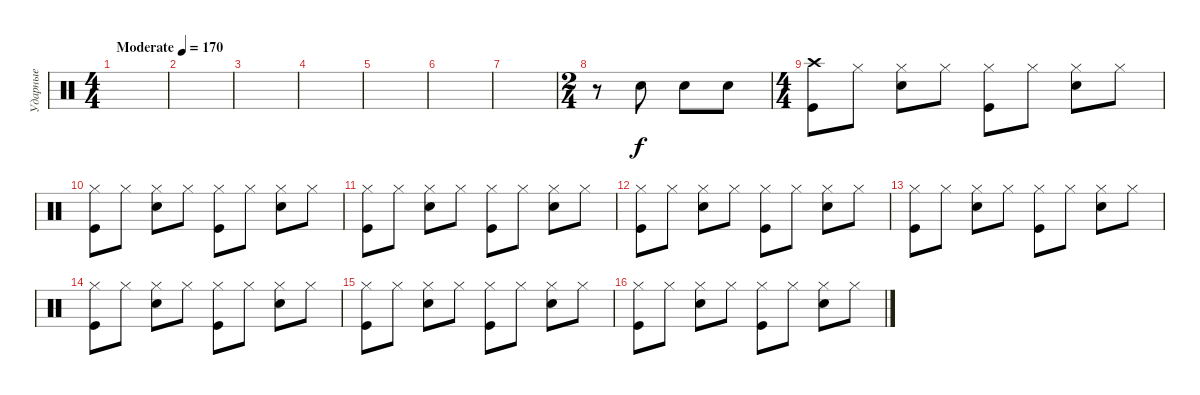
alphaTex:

\track ("Ударные" "Ударные") {instrument percussion}
\staff {score}
\articulation defaults
\ts (4 4)
\tempo (170 "Moderate")
\clef neutral
\ks c
|
|
|
|
|
|
|
\ts (2 4)
r.8 "Electric Snare (hit)".8 "Electric Snare (hit)".8 "Electric Snare (hit)".8 |
\ts (4 4)
("Kick (hit)" "Crash high (hit)").8 "Hi-Hat (closed)".8 ("Electric Snare (hit)" "Hi-Hat (closed)").8 "Hi-Hat (closed)".8 ("Kick (hit)" "Hi-Hat (closed)").8 "Hi-Hat (closed)".8 ("Electric Snare (hit)" "Hi-Hat (closed)").8 "Hi-Hat (closed)".8 |
("Kick (hit)" "Hi-Hat (closed)").8 "Hi-Hat (closed)".8 ("Electric Snare (hit)" "Hi-Hat (closed)").8 "Hi-Hat (closed)".8 ("Kick (hit)" "Hi-Hat (closed)").8 "Hi-Hat (closed)".8 ("Electric Snare (hit)" "Hi-Hat (closed)").8 "Hi-Hat (closed)".8 |
("Kick (hit)" "Hi-Hat (closed)").8 "Hi-Hat (closed)".8 ("Electric Snare (hit)" "Hi-Hat (closed)").8 "Hi-Hat (closed)".8 ("Kick (hit)" "Hi-Hat (closed)").8 "Hi-Hat (closed)".8 ("Electric Snare (hit)" "Hi-Hat (closed)").8 "Hi-Hat (closed)".8 |
("Kick (hit)" "Hi-Hat (closed)").8 "Hi-Hat (closed)".8 ("Electric Snare (hit)" "Hi-Hat (closed)").8 "Hi-Hat (closed)".8 ("Kick (hit)" "Hi-Hat (closed)").8 "Hi-Hat (closed)".8 ("Electric Snare (hit)" "Hi-Hat (closed)").8 "Hi-Hat (closed)".8 |
("Kick (hit)" "Hi-Hat (closed)").8 "Hi-Hat (closed)".8 ("Electric Snare (hit)" "Hi-Hat (closed)").8 "Hi-Hat (closed)".8 ("Kick (hit)" "Hi-Hat (closed)").8 "Hi-Hat (closed)".8 ("Electric Snare (hit)" "Hi-Hat (closed)").8 "Hi-Hat (closed)".8 |
("Kick (hit)" "Hi-Hat (closed)").8 "Hi-Hat (closed)".8 ("Electric Snare (hit)" "Hi-Hat (closed)").8 "Hi-Hat (closed)".8 ("Kick (hit)" "Hi-Hat (closed)").8 "Hi-Hat (closed)".8 ("Electric Snare (hit)" "Hi-Hat (closed)").8 "Hi-Hat (closed)".8 |
("Kick (hit)" "Hi-Hat (closed)").8 "Hi-Hat (closed)".8 ("Electric Snare (hit)" "Hi-Hat (closed)").8 "Hi-Hat (closed)".8 ("Kick (hit)" "Hi-Hat (closed)").8 "Hi-Hat (closed)".8 ("Electric Snare (hit)" "Hi-Hat (closed)").8 "Hi-Hat (closed)".8 |
("Kick (hit)" "Hi-Hat (closed)").8 "Hi-Hat (closed)".8 ("Electric Snare (hit)" "Hi-Hat (closed)").8 "Hi-Hat (closed)".8 ("Kick (hit)" "Hi-Hat (closed)").8 "Hi-Hat (closed)".8 ("Electric Snare (hit)" "Hi-Hat (closed)").8 "Hi-Hat (closed)".8
